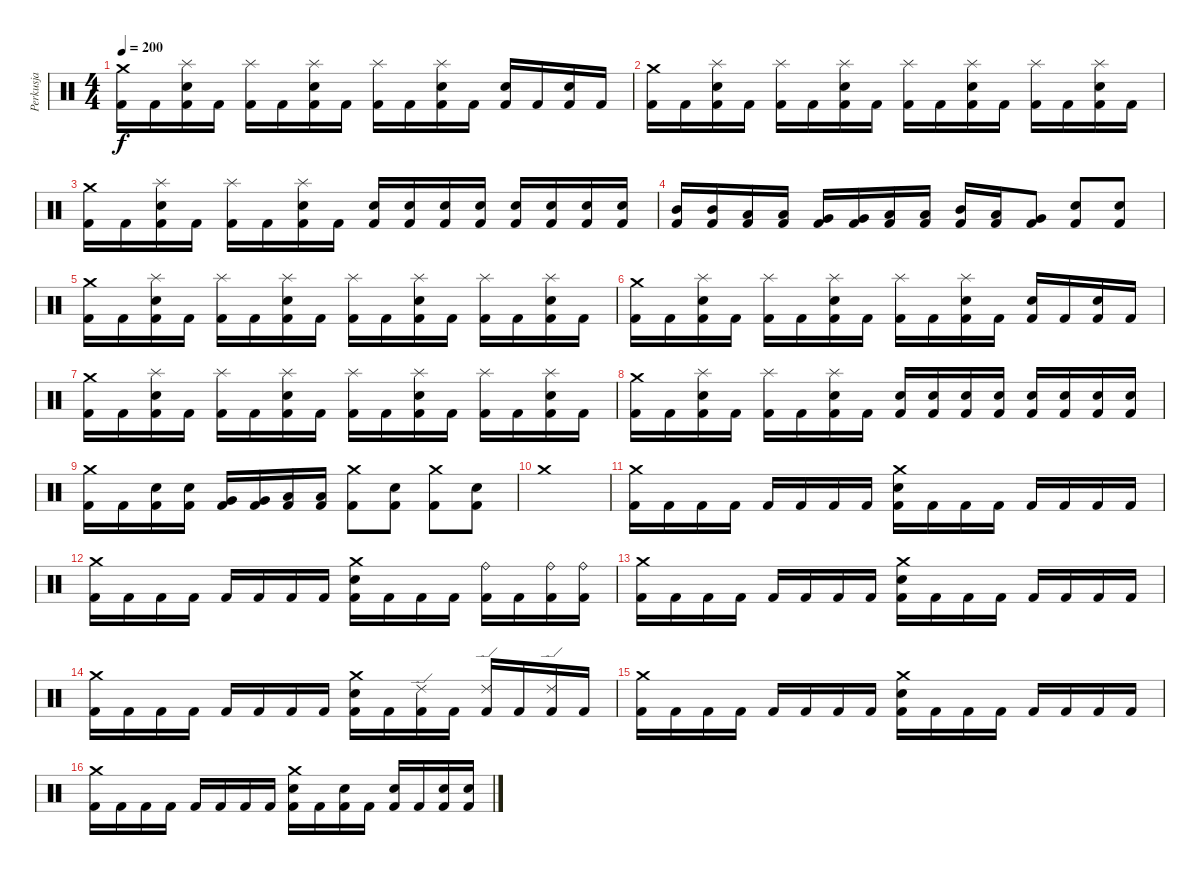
\track ("Perkusja" "Perkusja") {instrument percussion}
\staff {score}
\articulation defaults
\ts (4 4)
\tempo 200
\clef neutral
\ks c
("Crash medium (hit)" "Kick (hit) 2").16{dy f} "Kick (hit) 2".16 ("Splash (hit)" "Electric Snare (hit)" "Kick (hit) 2").16 "Kick (hit) 2".16 ("Splash (hit)" "Kick (hit) 2").16 "Kick (hit) 2".16 ("Splash (hit)" "Electric Snare (hit)" "Kick (hit) 2").16 "Kick (hit) 2".16 ("Splash (hit)" "Kick (hit) 2").16 "Kick (hit) 2".16 ("Splash (hit)" "Electric Snare (hit)" "Kick (hit) 2").16 "Kick (hit) 2".16 ("Electric Snare (hit)" "Kick (hit) 2").16 "Kick (hit) 2".16 ("Electric Snare (hit)" "Kick (hit) 2").16 "Kick (hit) 2".16 |
("Crash medium (hit)" "Kick (hit) 2").16 "Kick (hit) 2".16 ("Splash (hit)" "Electric Snare (hit)" "Kick (hit) 2").16 "Kick (hit) 2".16 ("Splash (hit)" "Kick (hit) 2").16 "Kick (hit) 2".16 ("Splash (hit)" "Electric Snare (hit)" "Kick (hit) 2").16 "Kick (hit) 2".16 ("Splash (hit)" "Kick (hit) 2").16 "Kick (hit) 2".16 ("Splash (hit)" "Electric Snare (hit)" "Kick (hit) 2").16 "Kick (hit) 2".16 ("Splash (hit)" "Kick (hit) 2").16 "Kick (hit) 2".16 ("Splash (hit)" "Electric Snare (hit)" "Kick (hit) 2").16 "Kick (hit) 2".16 |
("Crash medium (hit)" "Kick (hit) 2").16 "Kick (hit) 2".16 ("Splash (hit)" "Electric Snare (hit)" "Kick (hit) 2").16 "Kick (hit) 2".16 ("Splash (hit)" "Kick (hit) 2").16 "Kick (hit) 2".16 ("Splash (hit)" "Electric Snare (hit)" "Kick (hit) 2").16 "Kick (hit) 2".16 ("Snare (hit) 2" "Kick (hit) 2").16 ("Snare (hit) 2" "Kick (hit) 2").16 ("Snare (hit) 2" "Kick (hit) 2").16 ("Snare (hit) 2" "Kick (hit) 2").16 ("Electric Snare (hit)" "Kick (hit) 2").16 ("Electric Snare (hit)" "Kick (hit) 2").16 ("Electric Snare (hit)" "Kick (hit) 2").16 ("Electric Snare (hit)" "Kick (hit) 2").16 |
("Mid Tom (hit)" "Kick (hit) 2").16 ("Mid Tom (hit)" "Kick (hit) 2").16 ("Low Tom (hit)" "Kick (hit) 2").16 ("Low Tom (hit)" "Kick (hit) 2").16 ("Very Low Tom (hit)" "Kick (hit) 2").16 ("Very Low Tom (hit)" "Kick (hit) 2").16 ("Low Floor Tom (hit)" "Kick (hit) 2").16 ("Low Floor Tom (hit)" "Kick (hit) 2").16 ("Mid Tom (hit)" "Kick (hit) 2").16 ("Low Tom (hit)" "Kick (hit) 2").16 ("Very Low Tom (hit)" "Kick (hit) 2").8 ("Electric Snare (hit)" "Kick (hit) 2").8 ("Electric Snare (hit)" "Kick (hit) 2").8 |
("Crash medium (hit)" "Kick (hit) 2").16 "Kick (hit) 2".16 ("Splash (hit)" "Electric Snare (hit)" "Kick (hit) 2").16 "Kick (hit) 2".16 ("Splash (hit)" "Kick (hit) 2").16 "Kick (hit) 2".16 ("Splash (hit)" "Electric Snare (hit)" "Kick (hit) 2").16 "Kick (hit) 2".16 ("Splash (hit)" "Kick (hit) 2").16 "Kick (hit) 2".16 ("Splash (hit)" "Electric Snare (hit)" "Kick (hit) 2").16 "Kick (hit) 2".16 ("Splash (hit)" "Kick (hit) 2").16 "Kick (hit) 2".16 ("Splash (hit)" "Electric Snare (hit)" "Kick (hit) 2").16 "Kick (hit) 2".16 |
("Crash medium (hit)" "Kick (hit) 2").16 "Kick (hit) 2".16 ("Splash (hit)" "Electric Snare (hit)" "Kick (hit) 2").16 "Kick (hit) 2".16 ("Splash (hit)" "Kick (hit) 2").16 "Kick (hit) 2".16 ("Splash (hit)" "Electric Snare (hit)" "Kick (hit) 2").16 "Kick (hit) 2".16 ("Splash (hit)" "Kick (hit) 2").16 "Kick (hit) 2".16 ("Splash (hit)" "Electric Snare (hit)" "Kick (hit) 2").16 "Kick (hit) 2".16 ("Electric Snare (hit)" "Kick (hit) 2").16 "Kick (hit) 2".16 ("Electric Snare (hit)" "Kick (hit) 2").16 "Kick (hit) 2".16 |
("Crash medium (hit)" "Kick (hit) 2").16 "Kick (hit) 2".16 ("Splash (hit)" "Electric Snare (hit)" "Kick (hit) 2").16 "Kick (hit) 2".16 ("Splash (hit)" "Kick (hit) 2").16 "Kick (hit) 2".16 ("Splash (hit)" "Electric Snare (hit)" "Kick (hit) 2").16 "Kick (hit) 2".16 ("Splash (hit)" "Kick (hit) 2").16 "Kick (hit) 2".16 ("Splash (hit)" "Electric Snare (hit)" "Kick (hit) 2").16 "Kick (hit) 2".16 ("Splash (hit)" "Kick (hit) 2").16 "Kick (hit) 2".16 ("Splash (hit)" "Electric Snare (hit)" "Kick (hit) 2").16 "Kick (hit) 2".16 |
("Crash medium (hit)" "Kick (hit) 2").16 "Kick (hit) 2".16 ("Splash (hit)" "Electric Snare (hit)" "Kick (hit) 2").16 "Kick (hit) 2".16 ("Splash (hit)" "Kick (hit) 2").16 "Kick (hit) 2".16 ("Splash (hit)" "Electric Snare (hit)" "Kick (hit) 2").16 "Kick (hit) 2".16 ("Snare (hit) 2" "Kick (hit) 2").16 ("Snare (hit) 2" "Kick (hit) 2").16 ("Snare (hit) 2" "Kick (hit) 2").16 ("Snare (hit) 2" "Kick (hit) 2").16 ("Electric Snare (hit)" "Kick (hit) 2").16 ("Electric Snare (hit)" "Kick (hit) 2").16 ("Electric Snare (hit)" "Kick (hit) 2").16 ("Electric Snare (hit)" "Kick (hit) 2").16 |
("Crash medium (hit)" "Kick (hit) 2").16 "Kick (hit) 2".16 ("Electric Snare (hit)" "Kick (hit) 2").16 ("Electric Snare (hit)" "Kick (hit) 2").16 ("Very Low Tom (hit)" "Kick (hit) 2").16 ("Very Low Tom (hit)" "Kick (hit) 2").16 ("Low Floor Tom (hit)" "Kick (hit) 2").16 ("Low Floor Tom (hit)" "Kick (hit) 2").16 ("Crash medium (hit)" "Kick (hit) 2").8 ("Electric Snare (hit)" "Kick (hit) 2").8 ("Crash medium (hit)" "Kick (hit) 2").8 ("Electric Snare (hit)" "Kick (hit) 2").8 |
"Crash medium (hit)".1 |
("Crash medium (hit)" "Kick (hit) 2").16 "Kick (hit) 2".16 "Kick (hit) 2".16 "Kick (hit) 2".16 "Kick (hit) 2".16 "Kick (hit) 2".16 "Kick (hit) 2".16 "Kick (hit) 2".16 ("Crash medium (hit)" "Electric Snare (hit)" "Kick (hit) 2").16 "Kick (hit) 2".16 "Kick (hit) 2".16 "Kick (hit) 2".16 "Kick (hit) 2".16 "Kick (hit) 2".16 "Kick (hit) 2".16 "Kick (hit) 2".16 |
("Crash medium (hit)" "Kick (hit) 2").16 "Kick (hit) 2".16 "Kick (hit) 2".16 "Kick (hit) 2".16 "Kick (hit) 2".16 "Kick (hit) 2".16 "Kick (hit) 2".16 "Kick (hit) 2".16 ("Crash medium (hit)" "Electric Snare (hit)" "Kick (hit) 2").16 "Kick (hit) 2".16 "Kick (hit) 2".16 "Kick (hit) 2".16 ("Ride (bell)" "Kick (hit) 2").16 "Kick (hit) 2".16 ("Ride (bell)" "Kick (hit) 2").16 ("Ride (bell)" "Kick (hit) 2").16 |
("Crash medium (hit)" "Kick (hit) 2").16 "Kick (hit) 2".16 "Kick (hit) 2".16 "Kick (hit) 2".16 "Kick (hit) 2".16 "Kick (hit) 2".16 "Kick (hit) 2".16 "Kick (hit) 2".16 ("Crash medium (hit)" "Electric Snare (hit)" "Kick (hit) 2").16 "Kick (hit) 2".16 "Kick (hit) 2".16 "Kick (hit) 2".16 "Kick (hit) 2".16 "Kick (hit) 2".16 "Kick (hit) 2".16 "Kick (hit) 2".16 |
("Crash medium (hit)" "Kick (hit) 2").16 "Kick (hit) 2".16 "Kick (hit) 2".16 "Kick (hit) 2".16 "Kick (hit) 2".16 "Kick (hit) 2".16 "Kick (hit) 2".16 "Kick (hit) 2".16 ("Crash medium (hit)" "Electric Snare (hit)" "Kick (hit) 2").16 "Kick (hit) 2".16 ("Ride (edge) 2" "Kick (hit) 2").16 "Kick (hit) 2".16 ("Ride (edge) 2" "Kick (hit) 2").16 "Kick (hit) 2".16 ("Ride (edge) 2" "Kick (hit) 2").16 "Kick (hit) 2".16 |
("Crash medium (hit)" "Kick (hit) 2").16 "Kick (hit) 2".16 "Kick (hit) 2".16 "Kick (hit) 2".16 "Kick (hit) 2".16 "Kick (hit) 2".16 "Kick (hit) 2".16 "Kick (hit) 2".16 ("Crash medium (hit)" "Electric Snare (hit)" "Kick (hit) 2").16 "Kick (hit) 2".16 "Kick (hit) 2".16 "Kick (hit) 2".16 "Kick (hit) 2".16 "Kick (hit) 2".16 "Kick (hit) 2".16 "Kick (hit) 2".16 |
("Crash medium (hit)" "Kick (hit) 2").16 "Kick (hit) 2".16 "Kick (hit) 2".16 "Kick (hit) 2".16 "Kick (hit) 2".16 "Kick (hit) 2".16 "Kick (hit) 2".16 "Kick (hit) 2".16 ("Crash medium (hit)" "Electric Snare (hit)" "Kick (hit) 2").16 "Kick (hit) 2".16 ("Electric Snare (hit)" "Kick (hit) 2").16 "Kick (hit) 2".16 ("Electric Snare (hit)" "Kick (hit) 2").16 "Kick (hit) 2".16 ("Electric Snare (hit)" "Kick (hit) 2").16 ("Electric Snare (hit)" "Kick (hit) 2").16
